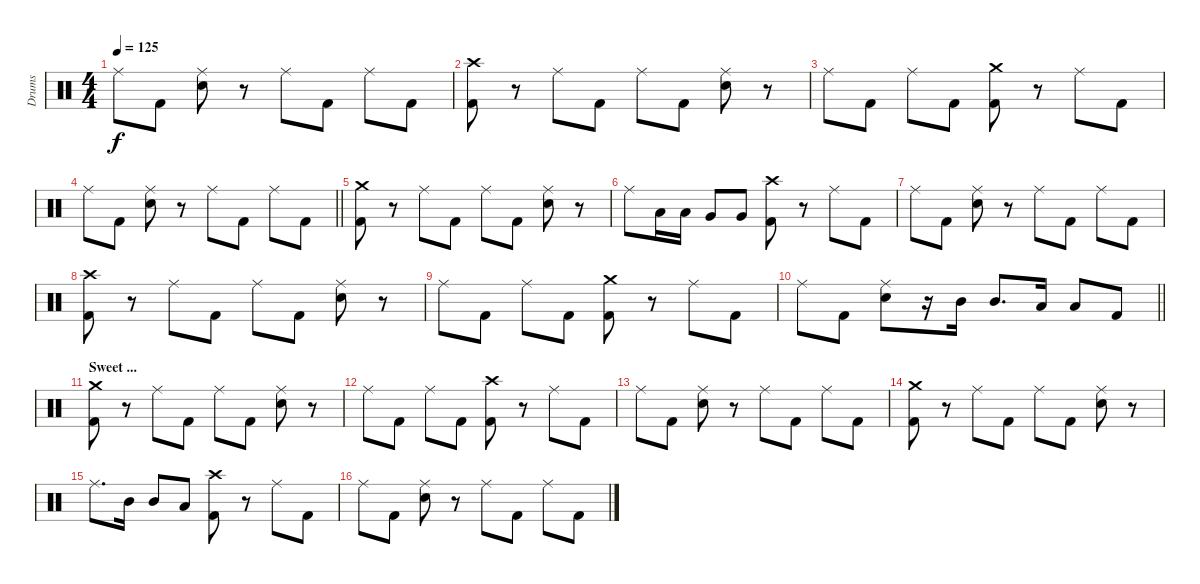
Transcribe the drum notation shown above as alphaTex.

\track ("Drums" "Drums") {instrument percussion}
\staff {score}
\articulation defaults
\ts (4 4)
\tempo 125
\clef neutral
\ks c "Ride (middle)".8{dy f} "Kick (hit) 2".8
("Ride (middle)" "Electric Snare (hit)").8 r.8 "Ride (middle)".8 "Kick (hit) 2".8 "Ride (middle)".8 "Kick (hit) 2".8 |
("Crash high (hit)" "Kick (hit) 2").8{volume 16} r.8 "Ride (middle)".8 "Kick (hit) 2".8 "Ride (middle)".8 "Kick (hit) 2".8 ("Ride (middle)" "Electric Snare (hit)").8 r.8 |
"Ride (middle)".8 "Kick (hit) 2".8 "Ride (middle)".8 "Kick (hit) 2".8 ("Crash medium (hit)" "Kick (hit) 2").8 r.8 "Ride (middle)".8 "Kick (hit) 2".8 |
\barLineRight lightlight "Ride (middle)".8 "Kick (hit) 2".8
("Ride (middle)" "Electric Snare (hit)").8 r.8 "Ride (middle)".8 "Kick (hit) 2".8 "Ride (middle)".8 "Kick (hit) 2".8 |
("Crash medium (hit)" "Kick (hit) 2").8{volume 16} r.8 "Ride (middle)".8 "Kick (hit) 2".8 "Ride (middle)".8 "Kick (hit) 2".8 ("Ride (middle)" "Electric Snare (hit)").8 r.8 |
"Ride (middle)".8 "Low Tom (hit)".16 "Low Tom (hit)".16 "Very Low Tom (hit)".8 "Very Low Tom (hit)".8 ("Crash high (hit)" "Kick (hit) 2").8 r.8 "Ride (middle)".8 "Kick (hit) 2".8 |
"Ride (middle)".8 "Kick (hit) 2".8 ("Ride (middle)" "Electric Snare (hit)").8 r.8 "Ride (middle)".8 "Kick (hit) 2".8 "Ride (middle)".8 "Kick (hit) 2".8 |
("Crash high (hit)" "Kick (hit) 2").8{volume 16} r.8 "Ride (middle)".8 "Kick (hit) 2".8 "Ride (middle)".8 "Kick (hit) 2".8 ("Ride (middle)" "Electric Snare (hit)").8 r.8 |
"Ride (middle)".8 "Kick (hit) 2".8 "Ride (middle)".8 "Kick (hit) 2".8 ("Crash medium (hit)" "Kick (hit) 2").8 r.8 "Ride (middle)".8 "Kick (hit) 2".8 |
\barLineRight lightlight "Ride (middle)".8 "Kick (hit) 2".8
("Ride (middle)" "Electric Snare (hit)").8 r.16 "Mid Tom (hit)".16 "Mid Tom (hit)".8{d} "Low Tom (hit)".16 "Low Tom (hit)".8 "Kick (hit) 2".8 |
\section ("" "Sweet ...")
("Crash medium (hit)" "Kick (hit) 2").8{volume 16} r.8 "Ride (middle)".8 "Kick (hit) 2".8 "Ride (middle)".8 "Kick (hit) 2".8 ("Ride (middle)" "Electric Snare (hit)").8 r.8 |
"Ride (middle)".8 "Kick (hit) 2".8 "Ride (middle)".8 "Kick (hit) 2".8 ("Crash high (hit)" "Kick (hit) 2").8 r.8 "Ride (middle)".8 "Kick (hit) 2".8 |
"Ride (middle)".8 "Kick (hit) 2".8 ("Ride (middle)" "Electric Snare (hit)").8 r.8 "Ride (middle)".8 "Kick (hit) 2".8 "Ride (middle)".8 "Kick (hit) 2".8 |
("Crash medium (hit)" "Kick (hit) 2").8{volume 16} r.8 "Ride (middle)".8 "Kick (hit) 2".8 "Ride (middle)".8 "Kick (hit) 2".8 ("Ride (middle)" "Electric Snare (hit)").8 r.8 |
"Ride (middle)".8{d} "Mid Tom (hit)".16 "Mid Tom (hit)".8 "Low Tom (hit)".8 ("Crash high (hit)" "Kick (hit) 2").8 r.8 "Ride (middle)".8 "Kick (hit) 2".8 |
"Ride (middle)".8 "Kick (hit) 2".8 ("Ride (middle)" "Electric Snare (hit)").8 r.8 "Ride (middle)".8 "Kick (hit) 2".8 "Ride (middle)".8 "Kick (hit) 2".8
